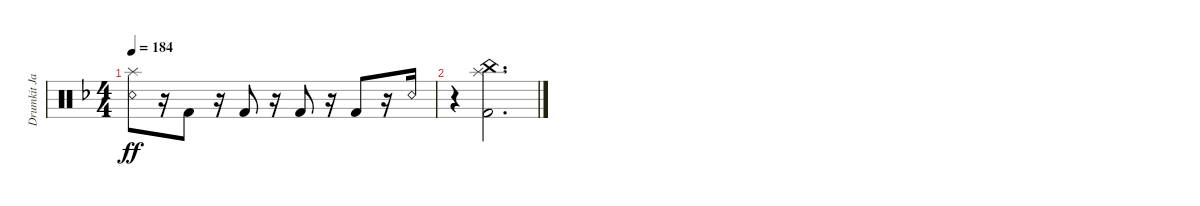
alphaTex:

\track ("Drumkit Jason" "Drumkit Ja") {instrument percussion}
\staff {score}
\articulation defaults
\ts (4 4)
\tempo 184
\clef neutral
\ks dminor
("Snare (rim shot)" "Splash (hit)").8{dy ff} r.16 "Kick (hit) 2".8 r.16 "Kick (hit) 2".8 r.16 "Kick (hit) 2".8 r.16 "Kick (hit) 2".8 r.16 "Snare (rim shot)".16 |
r.4 ("Splash (hit)" "China (hit)" "Kick (hit) 2").2{d}
